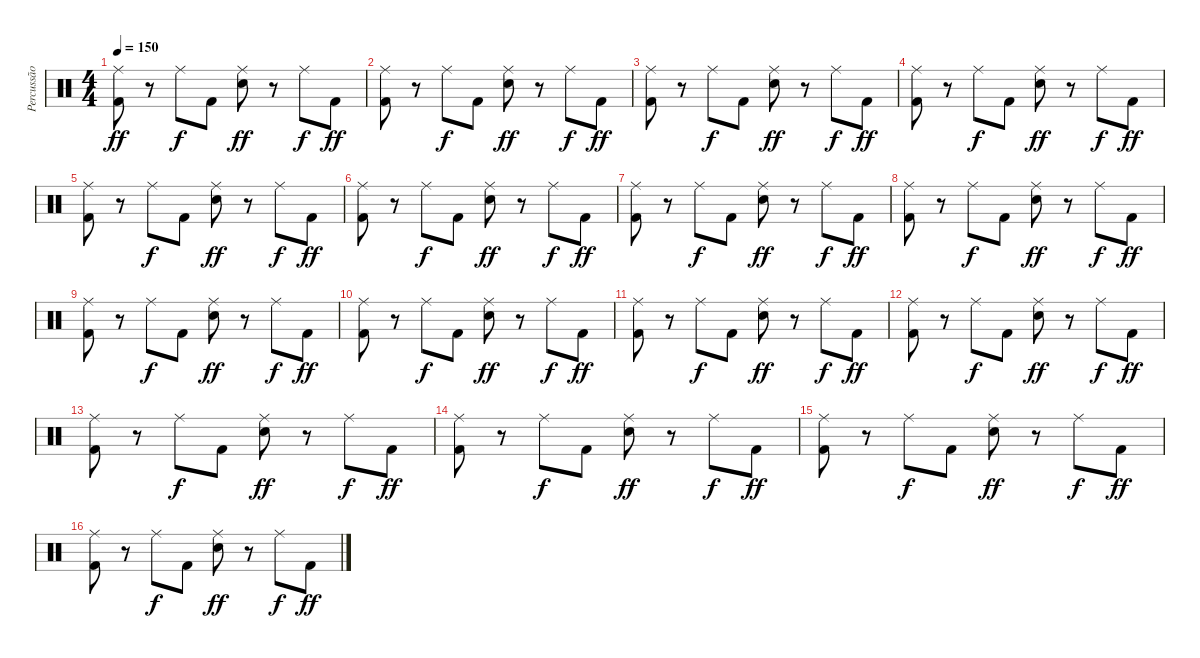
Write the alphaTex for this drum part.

\track ("Percussão" "Percussão") {instrument percussion}
\staff {score}
\articulation defaults
\ts (4 4)
\tempo 150
\clef neutral
\ks c
("Kick (hit) 2" "Ride (middle)").8{dy ff} r.8 "Ride (middle)".8{dy f} "Kick (hit) 2".8 ("Electric Snare (hit)" "Ride (middle)").8{dy ff} r.8 "Ride (middle)".8{dy f} "Kick (hit) 2".8{dy ff} |
("Kick (hit) 2" "Ride (middle)").8 r.8 "Ride (middle)".8{dy f} "Kick (hit) 2".8 ("Electric Snare (hit)" "Ride (middle)").8{dy ff} r.8 "Ride (middle)".8{dy f} "Kick (hit) 2".8{dy ff} |
("Kick (hit) 2" "Ride (middle)").8 r.8 "Ride (middle)".8{dy f} "Kick (hit) 2".8 ("Electric Snare (hit)" "Ride (middle)").8{dy ff} r.8 "Ride (middle)".8{dy f} "Kick (hit) 2".8{dy ff} |
("Kick (hit) 2" "Ride (middle)").8 r.8 "Ride (middle)".8{dy f} "Kick (hit) 2".8 ("Electric Snare (hit)" "Ride (middle)").8{dy ff} r.8 "Ride (middle)".8{dy f} "Kick (hit) 2".8{dy ff} |
("Kick (hit) 2" "Ride (middle)").8 r.8 "Ride (middle)".8{dy f} "Kick (hit) 2".8 ("Electric Snare (hit)" "Ride (middle)").8{dy ff} r.8 "Ride (middle)".8{dy f} "Kick (hit) 2".8{dy ff} |
("Kick (hit) 2" "Ride (middle)").8 r.8 "Ride (middle)".8{dy f} "Kick (hit) 2".8 ("Electric Snare (hit)" "Ride (middle)").8{dy ff} r.8 "Ride (middle)".8{dy f} "Kick (hit) 2".8{dy ff} |
("Kick (hit) 2" "Ride (middle)").8 r.8 "Ride (middle)".8{dy f} "Kick (hit) 2".8 ("Electric Snare (hit)" "Ride (middle)").8{dy ff} r.8 "Ride (middle)".8{dy f} "Kick (hit) 2".8{dy ff} |
("Kick (hit) 2" "Ride (middle)").8 r.8 "Ride (middle)".8{dy f} "Kick (hit) 2".8 ("Electric Snare (hit)" "Ride (middle)").8{dy ff} r.8 "Ride (middle)".8{dy f} "Kick (hit) 2".8{dy ff} |
("Kick (hit) 2" "Ride (middle)").8 r.8 "Ride (middle)".8{dy f} "Kick (hit) 2".8 ("Electric Snare (hit)" "Ride (middle)").8{dy ff} r.8 "Ride (middle)".8{dy f} "Kick (hit) 2".8{dy ff} |
("Kick (hit) 2" "Ride (middle)").8 r.8 "Ride (middle)".8{dy f} "Kick (hit) 2".8 ("Electric Snare (hit)" "Ride (middle)").8{dy ff} r.8 "Ride (middle)".8{dy f} "Kick (hit) 2".8{dy ff} |
("Kick (hit) 2" "Ride (middle)").8 r.8 "Ride (middle)".8{dy f} "Kick (hit) 2".8 ("Electric Snare (hit)" "Ride (middle)").8{dy ff} r.8 "Ride (middle)".8{dy f} "Kick (hit) 2".8{dy ff} |
("Kick (hit) 2" "Ride (middle)").8 r.8 "Ride (middle)".8{dy f} "Kick (hit) 2".8 ("Electric Snare (hit)" "Ride (middle)").8{dy ff} r.8 "Ride (middle)".8{dy f} "Kick (hit) 2".8{dy ff} |
("Kick (hit) 2" "Ride (middle)").8 r.8 "Ride (middle)".8{dy f} "Kick (hit) 2".8 ("Electric Snare (hit)" "Ride (middle)").8{dy ff} r.8 "Ride (middle)".8{dy f} "Kick (hit) 2".8{dy ff} |
("Kick (hit) 2" "Ride (middle)").8 r.8 "Ride (middle)".8{dy f} "Kick (hit) 2".8 ("Electric Snare (hit)" "Ride (middle)").8{dy ff} r.8 "Ride (middle)".8{dy f} "Kick (hit) 2".8{dy ff} |
("Kick (hit) 2" "Ride (middle)").8 r.8 "Ride (middle)".8{dy f} "Kick (hit) 2".8 ("Electric Snare (hit)" "Ride (middle)").8{dy ff} r.8 "Ride (middle)".8{dy f} "Kick (hit) 2".8{dy ff} |
("Kick (hit) 2" "Ride (middle)").8 r.8 "Ride (middle)".8{dy f} "Kick (hit) 2".8 ("Electric Snare (hit)" "Ride (middle)").8{dy ff} r.8 "Ride (middle)".8{dy f} "Kick (hit) 2".8{dy ff}
